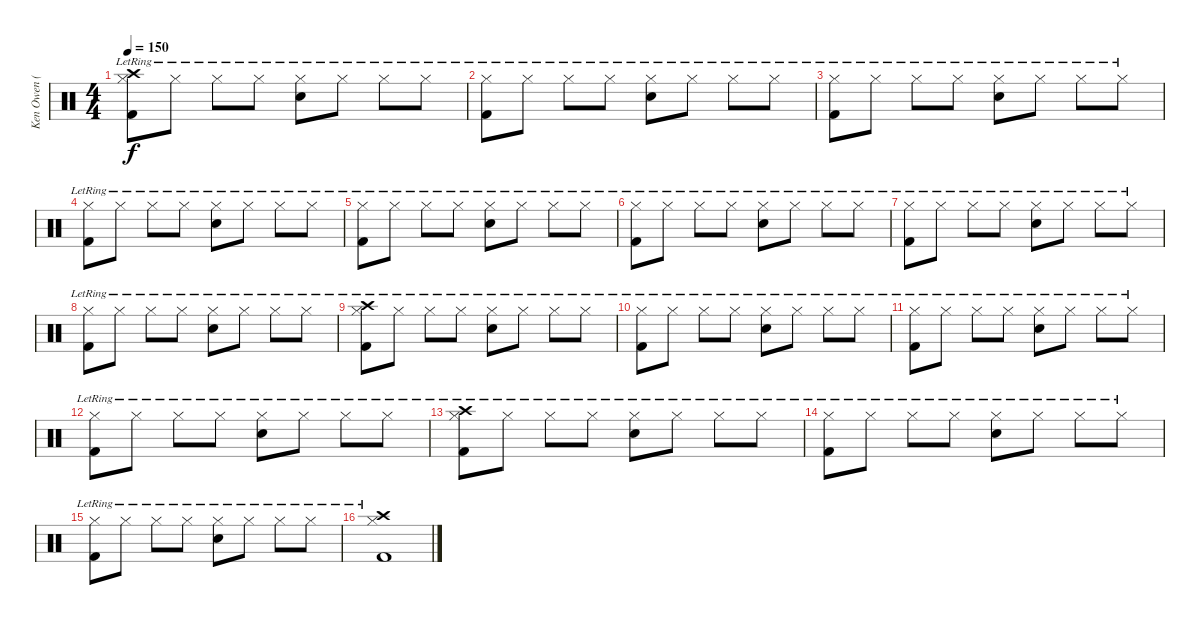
\track ("Ken Owen (Drums)" "Ken Owen (") {instrument percussion}
\staff {score}
\articulation defaults
\ts (4 4)
\tempo 150
\clef neutral
\ks c
("Crash high (hit)"{lr} "Hi-Hat (closed)"{lr} "Kick (hit) 2").8{dy f} "Hi-Hat (closed)"{lr}.8 "Hi-Hat (closed)"{lr}.8 "Hi-Hat (closed)"{lr}.8 ("Hi-Hat (closed)"{lr} "Snare (hit) 2").8 "Hi-Hat (closed)"{lr}.8 "Hi-Hat (closed)"{lr}.8 "Hi-Hat (closed)"{lr}.8 |
("Hi-Hat (closed)"{lr} "Kick (hit) 2").8 "Hi-Hat (closed)"{lr}.8 "Hi-Hat (closed)"{lr}.8 "Hi-Hat (closed)"{lr}.8 ("Hi-Hat (closed)"{lr} "Snare (hit) 2").8 "Hi-Hat (closed)"{lr}.8 "Hi-Hat (closed)"{lr}.8 "Hi-Hat (closed)"{lr}.8 |
("Hi-Hat (closed)"{lr} "Kick (hit) 2").8 "Hi-Hat (closed)"{lr}.8 "Hi-Hat (closed)"{lr}.8 "Hi-Hat (closed)"{lr}.8 ("Hi-Hat (closed)"{lr} "Snare (hit) 2").8 "Hi-Hat (closed)"{lr}.8 "Hi-Hat (closed)"{lr}.8 "Hi-Hat (closed)"{lr}.8 |
("Hi-Hat (closed)"{lr} "Kick (hit) 2").8 "Hi-Hat (closed)"{lr}.8 "Hi-Hat (closed)"{lr}.8 "Hi-Hat (closed)"{lr}.8 ("Hi-Hat (closed)"{lr} "Snare (hit) 2").8 "Hi-Hat (closed)"{lr}.8 "Hi-Hat (closed)"{lr}.8 "Hi-Hat (closed)"{lr}.8 |
("Hi-Hat (closed)"{lr} "Kick (hit) 2").8 "Hi-Hat (closed)"{lr}.8 "Hi-Hat (closed)"{lr}.8 "Hi-Hat (closed)"{lr}.8 ("Hi-Hat (closed)"{lr} "Snare (hit) 2").8 "Hi-Hat (closed)"{lr}.8 "Hi-Hat (closed)"{lr}.8 "Hi-Hat (closed)"{lr}.8 |
("Hi-Hat (closed)"{lr} "Kick (hit) 2").8 "Hi-Hat (closed)"{lr}.8 "Hi-Hat (closed)"{lr}.8 "Hi-Hat (closed)"{lr}.8 ("Hi-Hat (closed)"{lr} "Snare (hit) 2").8 "Hi-Hat (closed)"{lr}.8 "Hi-Hat (closed)"{lr}.8 "Hi-Hat (closed)"{lr}.8 |
("Hi-Hat (closed)"{lr} "Kick (hit) 2").8 "Hi-Hat (closed)"{lr}.8 "Hi-Hat (closed)"{lr}.8 "Hi-Hat (closed)"{lr}.8 ("Hi-Hat (closed)"{lr} "Snare (hit) 2").8 "Hi-Hat (closed)"{lr}.8 "Hi-Hat (closed)"{lr}.8 "Hi-Hat (closed)"{lr}.8 |
("Hi-Hat (closed)"{lr} "Kick (hit) 2").8 "Hi-Hat (closed)"{lr}.8 "Hi-Hat (closed)"{lr}.8 "Hi-Hat (closed)"{lr}.8 ("Hi-Hat (closed)"{lr} "Snare (hit) 2").8 "Hi-Hat (closed)"{lr}.8 "Hi-Hat (closed)"{lr}.8 "Hi-Hat (closed)"{lr}.8 |
("Crash high (hit)"{lr} "Hi-Hat (closed)"{lr} "Kick (hit) 2").8 "Hi-Hat (closed)"{lr}.8 "Hi-Hat (closed)"{lr}.8 "Hi-Hat (closed)"{lr}.8 ("Hi-Hat (closed)"{lr} "Snare (hit) 2").8 "Hi-Hat (closed)"{lr}.8 "Hi-Hat (closed)"{lr}.8 "Hi-Hat (closed)"{lr}.8 |
("Hi-Hat (closed)"{lr} "Kick (hit) 2").8 "Hi-Hat (closed)"{lr}.8 "Hi-Hat (closed)"{lr}.8 "Hi-Hat (closed)"{lr}.8 ("Hi-Hat (closed)"{lr} "Snare (hit) 2").8 "Hi-Hat (closed)"{lr}.8 "Hi-Hat (closed)"{lr}.8 "Hi-Hat (closed)"{lr}.8 |
("Hi-Hat (closed)"{lr} "Kick (hit) 2").8 "Hi-Hat (closed)"{lr}.8 "Hi-Hat (closed)"{lr}.8 "Hi-Hat (closed)"{lr}.8 ("Hi-Hat (closed)"{lr} "Snare (hit) 2").8 "Hi-Hat (closed)"{lr}.8 "Hi-Hat (closed)"{lr}.8 "Hi-Hat (closed)"{lr}.8 |
("Hi-Hat (closed)"{lr} "Kick (hit) 2").8 "Hi-Hat (closed)"{lr}.8 "Hi-Hat (closed)"{lr}.8 "Hi-Hat (closed)"{lr}.8 ("Hi-Hat (closed)"{lr} "Snare (hit) 2").8 "Hi-Hat (closed)"{lr}.8 "Hi-Hat (closed)"{lr}.8 "Hi-Hat (closed)"{lr}.8 |
("Crash high (hit)"{lr} "Hi-Hat (closed)"{lr} "Kick (hit) 2").8 "Hi-Hat (closed)"{lr}.8 "Hi-Hat (closed)"{lr}.8 "Hi-Hat (closed)"{lr}.8 ("Hi-Hat (closed)"{lr} "Snare (hit) 2").8 "Hi-Hat (closed)"{lr}.8 "Hi-Hat (closed)"{lr}.8 "Hi-Hat (closed)"{lr}.8 |
("Hi-Hat (closed)"{lr} "Kick (hit) 2").8 "Hi-Hat (closed)"{lr}.8 "Hi-Hat (closed)"{lr}.8 "Hi-Hat (closed)"{lr}.8 ("Hi-Hat (closed)"{lr} "Snare (hit) 2").8 "Hi-Hat (closed)"{lr}.8 "Hi-Hat (closed)"{lr}.8 "Hi-Hat (closed)"{lr}.8 |
("Hi-Hat (closed)"{lr} "Kick (hit) 2").8 "Hi-Hat (closed)"{lr}.8 "Hi-Hat (closed)"{lr}.8 "Hi-Hat (closed)"{lr}.8 ("Hi-Hat (closed)"{lr} "Snare (hit) 2").8 "Hi-Hat (closed)"{lr}.8 "Hi-Hat (closed)"{lr}.8 "Hi-Hat (closed)"{lr}.8 |
("Crash high (hit)"{lr} "Hi-Hat (closed)"{lr} "Kick (hit) 2").1
